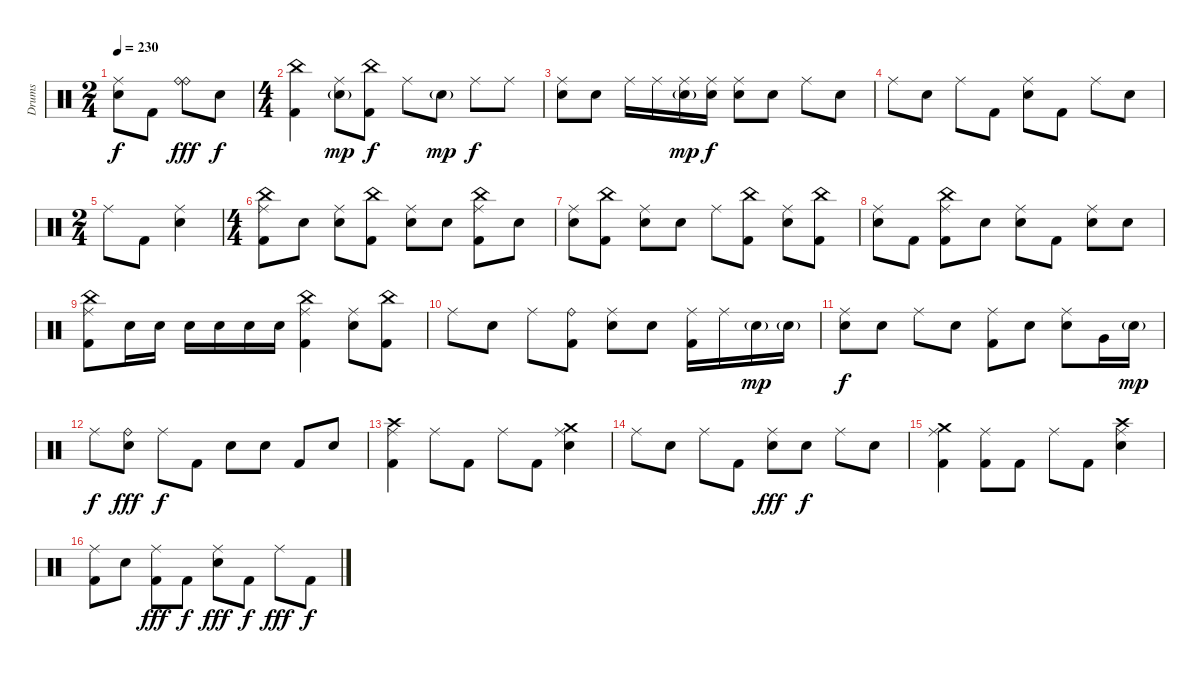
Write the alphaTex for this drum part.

\track ("Drums" "Drums") {instrument percussion}
\staff {score}
\articulation defaults
\ts (2 4)
\tempo 230
\clef neutral
\ks c
("Ride (middle)" "Snare (hit) 2").8{dy f} "Kick (hit) 2".8 ("Ride (bell)" "Ride (bell)").8{dy fff} "Snare (hit) 2".8{dy f} |
\ts (4 4)
("China (hit)" "Kick (hit) 2").4 ("Ride (middle)" "Snare (hit) 2"{g}).8{dy mp} ("China (hit)" "Kick (hit) 2").8{dy f} "Ride (middle)".8 "Snare (hit) 2"{g}.8{dy mp} "Ride (middle)".8{dy f} "Ride (middle)".8 |
("Ride (middle)" "Snare (hit) 2").8 "Snare (hit) 2".8 "Ride (middle)".16 "Ride (middle)".16 ("Ride (middle)" "Snare (hit) 2"{g}).16{dy mp} ("Ride (middle)" "Snare (hit) 2").16{dy f} ("Ride (middle)" "Snare (hit) 2").8 "Snare (hit) 2".8 "Ride (middle)".8 "Snare (hit) 2".8 |
"Ride (middle)".8 "Snare (hit) 2".8 "Ride (middle)".8 "Kick (hit) 2".8 ("Ride (middle)" "Snare (hit) 2").8 "Kick (hit) 2".8 "Ride (middle)".8 "Snare (hit) 2".8 |
\ts (2 4)
"Ride (middle)".8 "Kick (hit) 2".8 ("Ride (middle)" "Snare (hit) 2").4 |
\ts (4 4)
("China (hit)" "Ride (middle)" "Kick (hit) 2").8 "Snare (hit) 2".8 ("Ride (middle)" "Snare (hit) 2").8 ("China (hit)" "Kick (hit) 2").8 ("Ride (middle)" "Snare (hit) 2").8 "Snare (hit) 2".8 ("China (hit)" "Ride (middle)" "Kick (hit) 2").8 "Snare (hit) 2".8 |
("Ride (middle)" "Snare (hit) 2").8 ("China (hit)" "Kick (hit) 2").8 ("Ride (middle)" "Snare (hit) 2").8 "Snare (hit) 2".8 "Ride (middle)".8 ("China (hit)" "Kick (hit) 2").8 ("Ride (middle)" "Snare (hit) 2").8 ("China (hit)" "Kick (hit) 2").8 |
("Ride (middle)" "Snare (hit) 2").8 "Kick (hit) 2".8 ("China (hit)" "Ride (middle)" "Kick (hit) 2").8 "Snare (hit) 2".8 ("Ride (middle)" "Snare (hit) 2").8 "Kick (hit) 2".8 ("Ride (middle)" "Snare (hit) 2").8 "Snare (hit) 2".8 |
("China (hit)" "Ride (middle)" "Kick (hit) 2").8 "Snare (hit) 2".16 "Snare (hit) 2".16 "Snare (hit) 2".16 "Snare (hit) 2".16 "Snare (hit) 2".16 "Snare (hit) 2".16 ("China (hit)" "Ride (middle)" "Kick (hit) 2").4 ("Ride (middle)" "Snare (hit) 2").8 ("China (hit)" "Kick (hit) 2").8 |
"Ride (middle)".8 "Snare (hit) 2".8 "Ride (middle)".8 ("Ride (bell)" "Kick (hit) 2").8 ("Ride (middle)" "Snare (hit) 2").8 "Snare (hit) 2".8 ("Ride (middle)" "Kick (hit) 2").16 "Ride (middle)".16 "Snare (hit) 2"{g}.16{dy mp} "Snare (hit) 2"{g}.16 |
("Ride (middle)" "Snare (hit) 2").8{dy f} "Snare (hit) 2".8 "Ride (middle)".8 "Snare (hit) 2".8 ("Ride (middle)" "Kick (hit) 2").8 "Snare (hit) 2".8 ("Ride (middle)" "Snare (hit) 2").8 "Very Low Tom (hit)".16 "Snare (hit) 2"{g}.16{dy mp} |
"Ride (middle)".8{dy f} ("Ride (bell)" "Snare (hit) 2").8{dy fff} "Ride (middle)".8{dy f} "Kick (hit) 2".8 "Snare (hit) 2".8 "Snare (hit) 2".8 "Kick (hit) 2".8 "Snare (hit) 2".8 |
("Crash high (hit)" "Ride (middle)" "Kick (hit) 2").4 "Ride (middle)".8 "Kick (hit) 2".8 "Ride (middle)".8 "Kick (hit) 2".8 ("Crash medium (hit)" "Ride (middle)" "Electric Snare (hit)").4 |
"Ride (middle)".8 "Electric Snare (hit)".8 "Ride (middle)".8 "Kick (hit) 2".8 ("Ride (middle)" "Electric Snare (hit)").8{dy fff} "Electric Snare (hit)".8{dy f} "Ride (middle)".8 "Electric Snare (hit)".8 |
("Crash medium (hit)" "Ride (middle)" "Kick (hit) 2").4 ("Ride (middle)" "Kick (hit) 2").8 "Kick (hit) 2".8 "Ride (middle)".8 "Kick (hit) 2".8 ("Crash high (hit)" "Ride (middle)" "Electric Snare (hit)").4 |
("Ride (middle)" "Kick (hit) 2").8 "Electric Snare (hit)".8 ("Ride (middle)" "Kick (hit) 2").8{dy fff} "Kick (hit) 2".8{dy f} ("Ride (middle)" "Electric Snare (hit)").8{dy fff} "Kick (hit) 2".8{dy f} "Ride (middle)".8{dy fff} "Kick (hit) 2".8{dy f}
